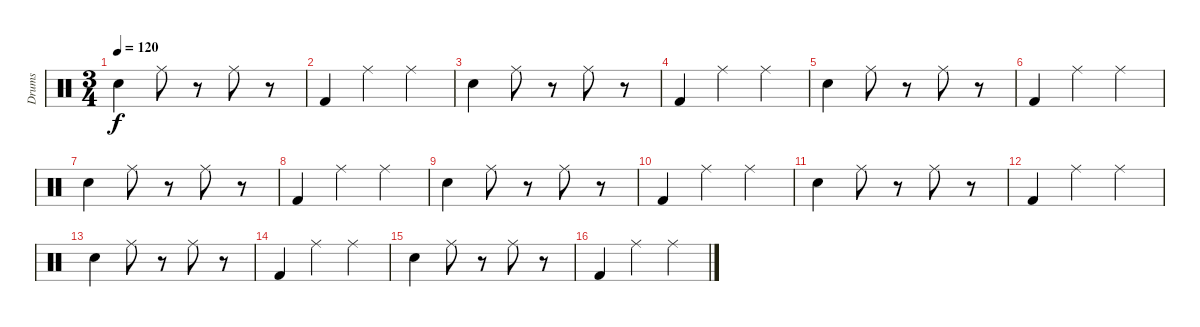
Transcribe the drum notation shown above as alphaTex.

\track ("Drums" "Drums") {instrument percussion}
\staff {score}
\articulation defaults
\ts (3 4)
\tempo 120
\clef neutral
\ks c "Snare (hit) 2".4{dy f} "Ride (middle)".8
r.8 "Ride (middle)".8 r.8 |
"Kick (hit) 2".4 "Ride (middle)".4 "Ride (middle)".4 |
"Snare (hit) 2".4 "Ride (middle)".8 r.8 "Ride (middle)".8 r.8 |
"Kick (hit) 2".4 "Ride (middle)".4 "Ride (middle)".4 |
"Snare (hit) 2".4 "Ride (middle)".8 r.8 "Ride (middle)".8 r.8 |
"Kick (hit) 2".4 "Ride (middle)".4 "Ride (middle)".4 |
"Snare (hit) 2".4 "Ride (middle)".8 r.8 "Ride (middle)".8 r.8 |
"Kick (hit) 2".4 "Ride (middle)".4 "Ride (middle)".4 |
"Snare (hit) 2".4 "Ride (middle)".8 r.8 "Ride (middle)".8 r.8 |
"Kick (hit) 2".4 "Ride (middle)".4 "Ride (middle)".4 |
"Snare (hit) 2".4 "Ride (middle)".8 r.8 "Ride (middle)".8 r.8 |
"Kick (hit) 2".4 "Ride (middle)".4 "Ride (middle)".4 |
"Snare (hit) 2".4 "Ride (middle)".8 r.8 "Ride (middle)".8 r.8 |
"Kick (hit) 2".4 "Ride (middle)".4 "Ride (middle)".4 |
"Snare (hit) 2".4 "Ride (middle)".8 r.8 "Ride (middle)".8 r.8 |
"Kick (hit) 2".4 "Ride (middle)".4 "Ride (middle)".4
